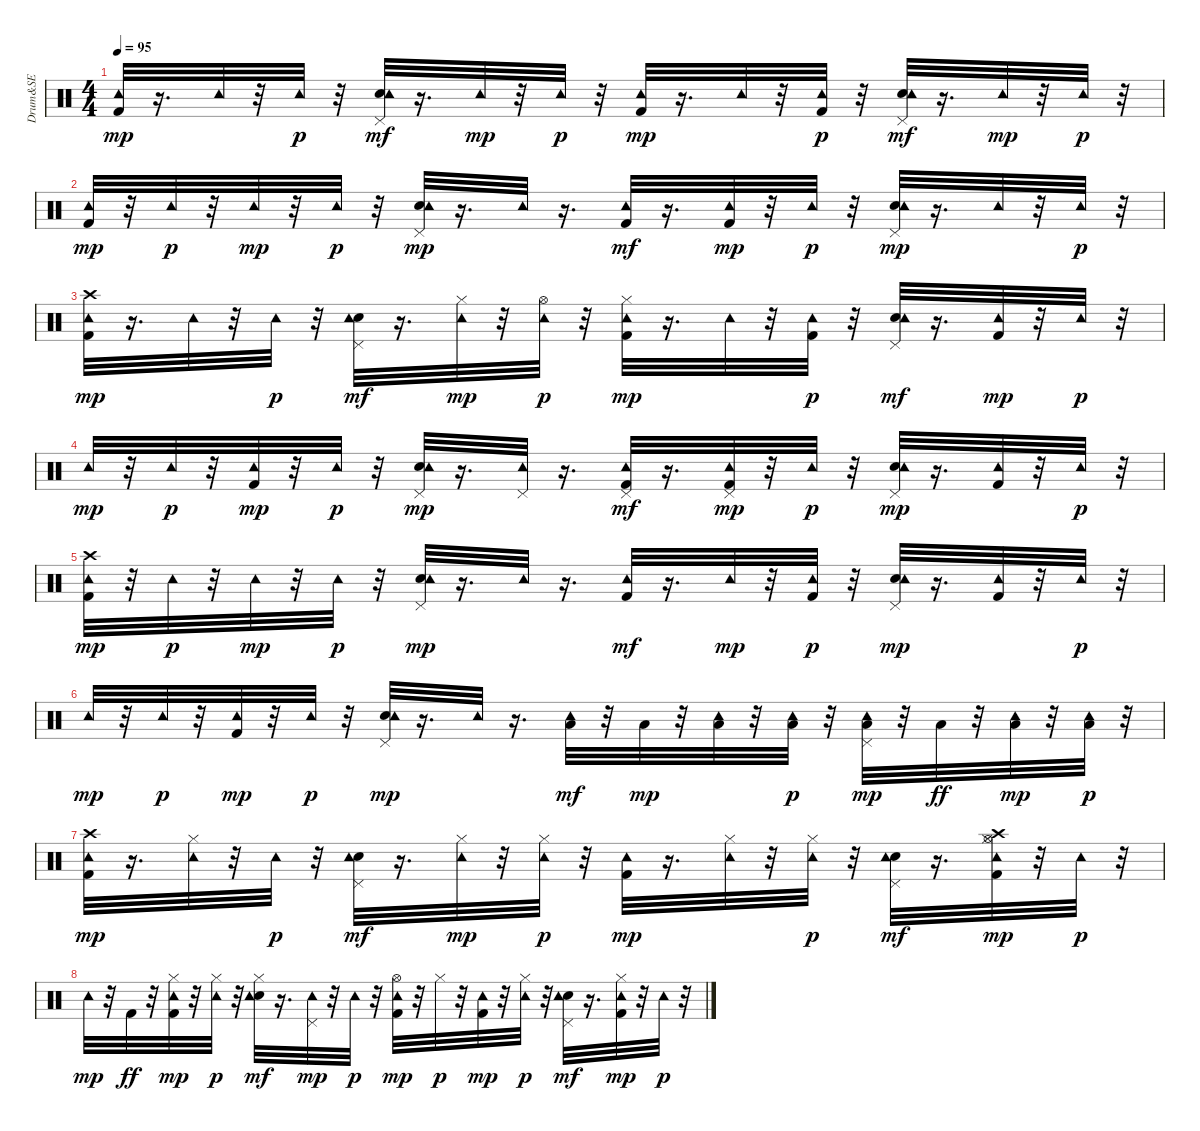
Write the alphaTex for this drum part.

\track ("Drum&SE" "Drum&SE") {instrument percussion}
\staff {score}
\articulation defaults
\ts (4 4)
\tempo 95
\clef neutral
\ks c
("Kick (hit) 2" "Tambourine (hit)").32{dy mp} r.16{d} "Tambourine (hit)".32 r.32 "Tambourine (hit)".32{dy p} r.32 ("Snare (hit) 2" "Pedal Hi-Hat (hit)" "Tambourine (hit)").32{dy mf} r.16{d} "Tambourine (hit)".32{dy mp} r.32 "Tambourine (hit)".32{dy p} r.32 ("Kick (hit) 2" "Tambourine (hit)").32{dy mp} r.16{d} "Tambourine (hit)".32 r.32 ("Kick (hit) 2" "Tambourine (hit)").32{dy p} r.32 ("Snare (hit) 2" "Pedal Hi-Hat (hit)" "Tambourine (hit)").32{dy mf} r.16{d} "Tambourine (hit)".32{dy mp} r.32 "Tambourine (hit)".32{dy p} r.32 |
("Kick (hit) 2" "Tambourine (hit)").32{dy mp} r.32 "Tambourine (hit)".32{dy p} r.32 "Tambourine (hit)".32{dy mp} r.32 "Tambourine (hit)".32{dy p} r.32 ("Snare (hit) 2" "Pedal Hi-Hat (hit)" "Tambourine (hit)").32{dy mp} r.16{d} "Tambourine (hit)".32 r.16{d} ("Kick (hit) 2" "Tambourine (hit)").32{dy mf} r.16{d} ("Kick (hit) 2" "Tambourine (hit)").32{dy mp} r.32 "Tambourine (hit)".32{dy p} r.32 ("Snare (hit) 2" "Pedal Hi-Hat (hit)" "Tambourine (hit)").32{dy mp} r.16{d} "Tambourine (hit)".32 r.32 "Tambourine (hit)".32{dy p} r.32 |
("Kick (hit) 2" "Crash high (hit)" "Tambourine (hit)").32{dy mp} r.16{d} "Tambourine (hit)".32 r.32 "Tambourine (hit)".32{dy p} r.32 ("Snare (hit) 2" "Pedal Hi-Hat (hit)" "Tambourine (hit)").32{dy mf} r.16{d} ("Hi-Hat (closed)" "Tambourine (hit)").32{dy mp} r.32 ("Hi-Hat (open)" "Tambourine (hit)").32{dy p} r.32 ("Kick (hit) 2" "Hi-Hat (closed)" "Tambourine (hit)").32{dy mp} r.16{d} "Tambourine (hit)".32 r.32 ("Kick (hit) 2" "Tambourine (hit)").32{dy p} r.32 ("Snare (hit) 2" "Pedal Hi-Hat (hit)" "Tambourine (hit)").32{dy mf} r.16{d} ("Kick (hit) 2" "Tambourine (hit)").32{dy mp} r.32 "Tambourine (hit)".32{dy p} r.32 |
"Tambourine (hit)".32{dy mp} r.32 "Tambourine (hit)".32{dy p} r.32 ("Kick (hit) 2" "Tambourine (hit)").32{dy mp} r.32 "Tambourine (hit)".32{dy p} r.32 ("Snare (hit) 2" "Pedal Hi-Hat (hit)" "Tambourine (hit)").32{dy mp} r.16{d} ("Pedal Hi-Hat (hit)" "Tambourine (hit)").32 r.16{d} ("Kick (hit) 2" "Pedal Hi-Hat (hit)" "Tambourine (hit)").32{dy mf} r.16{d} ("Kick (hit) 2" "Pedal Hi-Hat (hit)" "Tambourine (hit)").32{dy mp} r.32 "Tambourine (hit)".32{dy p} r.32 ("Snare (hit) 2" "Pedal Hi-Hat (hit)" "Tambourine (hit)").32{dy mp} r.16{d} ("Kick (hit) 2" "Tambourine (hit)").32 r.32 "Tambourine (hit)".32{dy p} r.32 |
("Kick (hit) 2" "Crash high (hit)" "Tambourine (hit)").32{dy mp} r.32 "Tambourine (hit)".32{dy p} r.32 "Tambourine (hit)".32{dy mp} r.32 "Tambourine (hit)".32{dy p} r.32 ("Snare (hit) 2" "Pedal Hi-Hat (hit)" "Tambourine (hit)").32{dy mp} r.16{d} "Tambourine (hit)".32 r.16{d} ("Kick (hit) 2" "Tambourine (hit)").32{dy mf} r.16{d} "Tambourine (hit)".32{dy mp} r.32 ("Kick (hit) 2" "Tambourine (hit)").32{dy p} r.32 ("Snare (hit) 2" "Pedal Hi-Hat (hit)" "Tambourine (hit)").32{dy mp} r.16{d} ("Kick (hit) 2" "Tambourine (hit)").32 r.32 "Tambourine (hit)".32{dy p} r.32 |
"Tambourine (hit)".32{dy mp} r.32 "Tambourine (hit)".32{dy p} r.32 ("Kick (hit) 2" "Tambourine (hit)").32{dy mp} r.32 "Tambourine (hit)".32{dy p} r.32 ("Snare (hit) 2" "Pedal Hi-Hat (hit)" "Tambourine (hit)").32{dy mp} r.16{d} "Tambourine (hit)".32 r.16{d} ("Low Floor Tom (hit)" "Tambourine (hit)").32{dy mf} r.32 "Low Floor Tom (hit)".32{dy mp} r.32 ("Low Floor Tom (hit)" "Tambourine (hit)").32 r.32 ("Low Floor Tom (hit)" "Tambourine (hit)").32{dy p} r.32 ("Pedal Hi-Hat (hit)" "Low Floor Tom (hit)" "Tambourine (hit)").32{dy mp} r.32 "Low Floor Tom (hit)".32{dy ff} r.32 ("Low Floor Tom (hit)" "Tambourine (hit)").32{dy mp} r.32 ("Low Floor Tom (hit)" "Tambourine (hit)").32{dy p} r.32 |
("Kick (hit) 2" "Crash high (hit)" "Tambourine (hit)").32{dy mp} r.16{d} ("Hi-Hat (closed)" "Tambourine (hit)").32 r.32 "Tambourine (hit)".32{dy p} r.32 ("Snare (hit) 2" "Pedal Hi-Hat (hit)" "Tambourine (hit)").32{dy mf} r.16{d} ("Hi-Hat (closed)" "Tambourine (hit)").32{dy mp} r.32 ("Hi-Hat (closed)" "Tambourine (hit)").32{dy p} r.32 ("Kick (hit) 2" "Tambourine (hit)").32{dy mp} r.16{d} ("Hi-Hat (closed)" "Tambourine (hit)").32 r.32 ("Hi-Hat (closed)" "Tambourine (hit)").32{dy p} r.32 ("Snare (hit) 2" "Pedal Hi-Hat (hit)" "Tambourine (hit)").32{dy mf} r.16{d} ("Kick (hit) 2" "Hi-Hat (closed)" "Crash high (hit)" "Hi-Hat (open)" "Tambourine (hit)").32{dy mp} r.32 "Tambourine (hit)".32{dy p} r.32 |
"Tambourine (hit)".32{dy mp} r.32 "Kick (hit) 2".32{dy ff} r.32 ("Kick (hit) 2" "Hi-Hat (closed)" "Tambourine (hit)").32{dy mp} r.32 ("Hi-Hat (closed)" "Tambourine (hit)").32{dy p} r.32 ("Snare (hit) 2" "Hi-Hat (closed)" "Tambourine (hit)").32{dy mf} r.16{d} ("Pedal Hi-Hat (hit)" "Tambourine (hit)").32{dy mp} r.32 "Tambourine (hit)".32{dy p} r.32 ("Kick (hit) 2" "Hi-Hat (open)" "Tambourine (hit)").32{dy mp} r.32 "Hi-Hat (closed)".32{dy p} r.32 ("Kick (hit) 2" "Tambourine (hit)").32{dy mp} r.32 ("Hi-Hat (closed)" "Tambourine (hit)").32{dy p} r.32 ("Snare (hit) 2" "Pedal Hi-Hat (hit)" "Tambourine (hit)").32{dy mf} r.16{d} ("Kick (hit) 2" "Hi-Hat (closed)" "Tambourine (hit)").32{dy mp} r.32 "Tambourine (hit)".32{dy p} r.32
